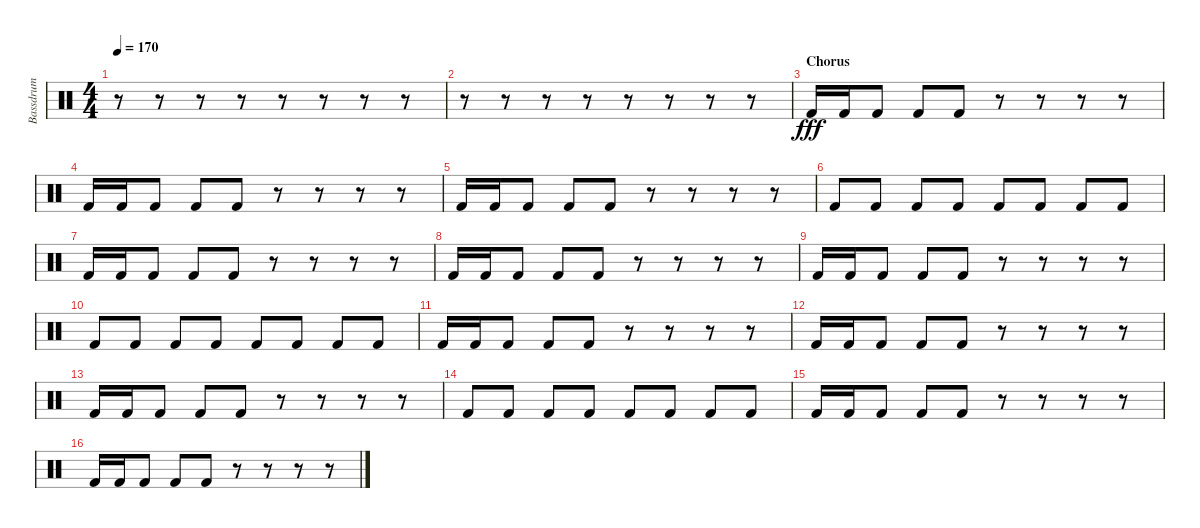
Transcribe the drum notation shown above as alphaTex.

\track ("Bassdrum" "Bassdrum") {instrument percussion}
\staff {score}
\articulation defaults
\ts (4 4)
\tempo 170
\clef neutral
\ks c
r.8{dy fff} r.8 r.8 r.8 r.8 r.8 r.8 r.8 |
r.8 r.8 r.8 r.8 r.8 r.8 r.8 r.8 |
\section ("" "Chorus")
"Kick (hit) 2".16 "Kick (hit) 2".16 "Kick (hit) 2".8 "Kick (hit) 2".8 "Kick (hit) 2".8 r.8 r.8 r.8 r.8 |
"Kick (hit) 2".16 "Kick (hit) 2".16 "Kick (hit) 2".8 "Kick (hit) 2".8 "Kick (hit) 2".8 r.8 r.8 r.8 r.8 |
"Kick (hit) 2".16 "Kick (hit) 2".16 "Kick (hit) 2".8 "Kick (hit) 2".8 "Kick (hit) 2".8 r.8 r.8 r.8 r.8 |
"Kick (hit) 2".8 "Kick (hit) 2".8 "Kick (hit) 2".8 "Kick (hit) 2".8 "Kick (hit) 2".8 "Kick (hit) 2".8 "Kick (hit) 2".8 "Kick (hit) 2".8 |
"Kick (hit) 2".16 "Kick (hit) 2".16 "Kick (hit) 2".8 "Kick (hit) 2".8 "Kick (hit) 2".8 r.8 r.8 r.8 r.8 |
"Kick (hit) 2".16 "Kick (hit) 2".16 "Kick (hit) 2".8 "Kick (hit) 2".8 "Kick (hit) 2".8 r.8 r.8 r.8 r.8 |
"Kick (hit) 2".16 "Kick (hit) 2".16 "Kick (hit) 2".8 "Kick (hit) 2".8 "Kick (hit) 2".8 r.8 r.8 r.8 r.8 |
"Kick (hit) 2".8 "Kick (hit) 2".8 "Kick (hit) 2".8 "Kick (hit) 2".8 "Kick (hit) 2".8 "Kick (hit) 2".8 "Kick (hit) 2".8 "Kick (hit) 2".8 |
"Kick (hit) 2".16 "Kick (hit) 2".16 "Kick (hit) 2".8 "Kick (hit) 2".8 "Kick (hit) 2".8 r.8 r.8 r.8 r.8 |
"Kick (hit) 2".16 "Kick (hit) 2".16 "Kick (hit) 2".8 "Kick (hit) 2".8 "Kick (hit) 2".8 r.8 r.8 r.8 r.8 |
"Kick (hit) 2".16 "Kick (hit) 2".16 "Kick (hit) 2".8 "Kick (hit) 2".8 "Kick (hit) 2".8 r.8 r.8 r.8 r.8 |
"Kick (hit) 2".8 "Kick (hit) 2".8 "Kick (hit) 2".8 "Kick (hit) 2".8 "Kick (hit) 2".8 "Kick (hit) 2".8 "Kick (hit) 2".8 "Kick (hit) 2".8 |
"Kick (hit) 2".16 "Kick (hit) 2".16 "Kick (hit) 2".8 "Kick (hit) 2".8 "Kick (hit) 2".8 r.8 r.8 r.8 r.8 |
"Kick (hit) 2".16 "Kick (hit) 2".16 "Kick (hit) 2".8 "Kick (hit) 2".8 "Kick (hit) 2".8 r.8 r.8 r.8 r.8
